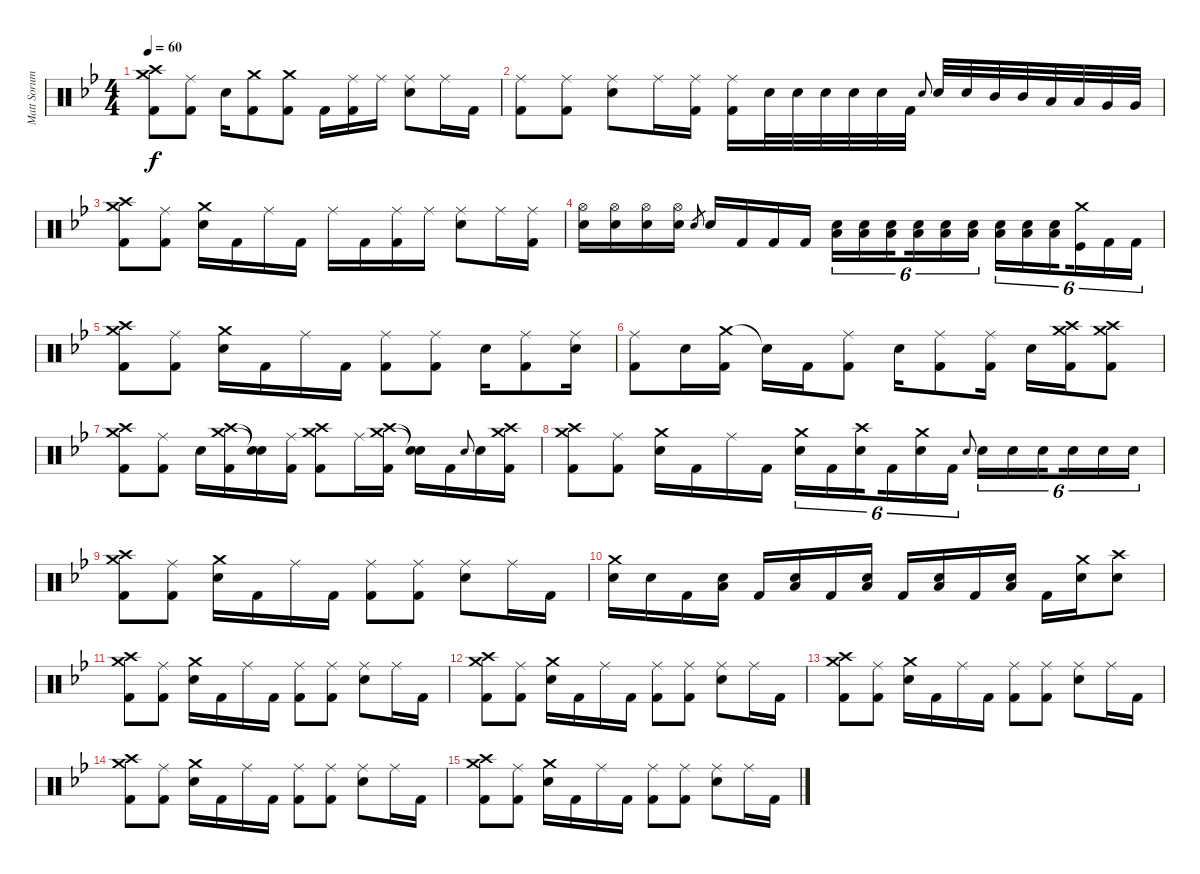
\track ("Matt Sorum - Drums" "Matt Sorum") {instrument percussion}
\staff {score}
\articulation defaults
\ts (4 4)
\tempo 60
\clef neutral
\ks bb
("Crash medium (hit)" "Crash high (hit)" "Kick (hit) 2").8{dy f} ("Ride (middle)" "Kick (hit) 2").8 "Snare (hit) 2".16 ("Crash medium (hit)" "Kick (hit) 2").8 ("Crash medium (hit)" "Kick (hit) 2").8 "Kick (hit) 2".16 ("Ride (middle)" "Kick (hit) 2").16 "Ride (middle)".16 ("Ride (middle)" "Snare (hit) 2").8 "Ride (middle)".16 "Kick (hit) 2".16 |
("Ride (middle)" "Kick (hit) 2").8 ("Ride (middle)" "Kick (hit) 2").8 ("Ride (middle)" "Snare (hit) 2").8 "Ride (middle)".16 ("Ride (middle)" "Kick (hit) 2").16 ("Ride (middle)" "Kick (hit) 2").16 "Snare (hit) 2".32 "Snare (hit) 2".32 "Snare (hit) 2".32 "Snare (hit) 2".32 "Snare (hit) 2".32 "Kick (hit) 2".32 "Snare (hit) 2".8{gr onbeat} "Snare (hit) 2".32 "Snare (hit) 2".32 "Mid Tom (hit)".32 "Mid Tom (hit)".32 "Low Tom (hit)".32 "Low Tom (hit)".32 "Very Low Tom (hit)".32 "Very Low Tom (hit)".32 |
("Crash medium (hit)" "Crash high (hit)" "Kick (hit) 2").8 ("Ride (middle)" "Kick (hit) 2").8 ("Crash medium (hit)" "Snare (hit) 2").16 "Kick (hit) 2".16 "Ride (middle)".16 "Kick (hit) 2".16 "Ride (middle)".16 "Kick (hit) 2".16 ("Ride (middle)" "Kick (hit) 2").16 "Ride (middle)".16 ("Ride (middle)" "Snare (hit) 2").8 "Ride (middle)".16 ("Ride (middle)" "Kick (hit) 2").16 |
("Hi-Hat (open)" "Snare (hit) 2").16 ("Hi-Hat (open)" "Snare (hit) 2").16 ("Hi-Hat (open)" "Snare (hit) 2").16 ("Hi-Hat (open)" "Snare (hit) 2").16 "Snare (hit) 2".8{gr} "Snare (hit) 2".16 "Kick (hit) 2".16 "Kick (hit) 2".16 "Kick (hit) 2".16 ("Low Tom (hit)" "Snare (hit) 2").16{tu (6 4)} ("Low Tom (hit)" "Snare (hit) 2").16{tu (6 4)} ("Low Tom (hit)" "Snare (hit) 2").16{tu (6 4) beam splitsecondary} ("Low Tom (hit)" "Snare (hit) 2").16{tu (6 4)} ("Low Tom (hit)" "Snare (hit) 2").16{tu (6 4)} ("Low Tom (hit)" "Snare (hit) 2").16{tu (6 4)} ("Low Tom (hit)" "Snare (hit) 2").16{tu (6 4)} ("Low Tom (hit)" "Snare (hit) 2").16{tu (6 4)} ("Low Tom (hit)" "Snare (hit) 2").16{tu (6 4) beam splitsecondary} ("Crash medium (hit)" "Kick (hit)").16{tu (6 4)} "Kick (hit) 2".16{tu (6 4)} "Kick (hit) 2".16{tu (6 4)} |
("Crash medium (hit)" "Crash high (hit)" "Kick (hit) 2").8 ("Ride (middle)" "Kick (hit) 2").8 ("Crash medium (hit)" "Snare (hit) 2").16 "Kick (hit) 2".16 "Ride (middle)".16 "Kick (hit) 2".16 ("Ride (middle)" "Kick (hit) 2").8 ("Ride (middle)" "Kick (hit) 2").8 "Snare (hit) 2".16 ("Ride (middle)" "Kick (hit) 2").8 ("Ride (middle)" "Snare (hit) 2").16 |
("Ride (middle)" "Kick (hit) 2").8 "Snare (hit) 2".16 ("Crash medium (hit)" "Kick (hit) 2").16 "Snare (hit)"{t}.16 "Kick (hit) 2".16 ("Ride (middle)" "Kick (hit) 2").8 "Snare (hit) 2".16 ("Ride (middle)" "Kick (hit) 2").8 ("Ride (middle)" "Kick (hit) 2").16 "Snare (hit) 2".16 ("Crash medium (hit)" "Crash high (hit)" "Kick (hit) 2").16 ("Crash high (hit)" "Crash medium (hit)" "Kick (hit) 2").8 |
("Crash medium (hit)" "Crash high (hit)" "Kick (hit) 2").8 ("Ride (middle)" "Kick (hit) 2").8 "Snare (hit) 2".16 ("Crash high (hit)" "Crash medium (hit)" "Kick (hit) 2").16 ("Snare (hit)"{t} "Snare (hit)"{t}).16 ("Ride (middle)" "Kick (hit) 2").16 ("Crash medium (hit)" "Crash high (hit)" "Kick (hit) 2").8 "Ride (middle)".16 ("Crash high (hit)" "Crash medium (hit)" "Kick (hit) 2").16 ("Snare (hit)"{t} "Snare (hit)"{t}).16 "Kick (hit) 2".16 "Snare (hit) 2".8{gr onbeat} "Snare (hit) 2".16 ("Crash medium (hit)" "Crash high (hit)" "Kick (hit) 2").16 |
("Crash medium (hit)" "Crash high (hit)" "Kick (hit) 2").8 ("Ride (middle)" "Kick (hit) 2").8 ("Crash medium (hit)" "Snare (hit) 2").16 "Kick (hit) 2".16 "Ride (middle)".16 "Kick (hit) 2".16 ("Crash medium (hit)" "Snare (hit) 2").16{tu (6 4)} "Kick (hit) 2".16{tu (6 4)} ("Crash high (hit)" "Snare (hit) 2").16{tu (6 4) beam splitsecondary} "Kick (hit) 2".16{tu (6 4)} ("Crash medium (hit)" "Snare (hit) 2").16{tu (6 4)} "Kick (hit) 2".16{tu (6 4)} "Snare (hit) 2".8{gr onbeat} "Snare (hit) 2".16{tu (6 4)} "Snare (hit) 2".16{tu (6 4)} "Snare (hit) 2".16{tu (6 4) beam splitsecondary} "Snare (hit) 2".16{tu (6 4)} "Snare (hit) 2".16{tu (6 4)} "Snare (hit) 2".16{tu (6 4)} |
("Crash medium (hit)" "Crash high (hit)" "Kick (hit) 2").8 ("Ride (middle)" "Kick (hit) 2").8 ("Crash medium (hit)" "Snare (hit) 2").16 "Kick (hit) 2".16 "Ride (middle)".16 "Kick (hit) 2".16 ("Ride (middle)" "Kick (hit) 2").8 ("Ride (middle)" "Kick (hit) 2").8 ("Ride (middle)" "Snare (hit) 2").8 "Ride (middle)".16 "Kick (hit) 2".16 |
("Crash medium (hit)" "Snare (hit) 2").16 "Snare (hit) 2".16 "Kick (hit) 2".16 ("Low Tom (hit)" "Snare (hit) 2").16 "Kick (hit) 2".16 ("Low Tom (hit)" "Snare (hit) 2").16 "Kick (hit) 2".16 ("Low Tom (hit)" "Snare (hit) 2").16 "Kick (hit) 2".16 ("Low Tom (hit)" "Snare (hit) 2").16 "Kick (hit) 2".16 ("Low Tom (hit)" "Snare (hit) 2").16 "Kick (hit) 2".16 ("Crash medium (hit)" "Snare (hit) 2").16 ("Crash high (hit)" "Snare (hit) 2").8 |
("Crash medium (hit)" "Crash high (hit)" "Kick (hit) 2").8 ("Ride (middle)" "Kick (hit) 2").8 ("Crash medium (hit)" "Snare (hit) 2").16 "Kick (hit) 2".16 "Ride (middle)".16 "Kick (hit) 2".16 ("Ride (middle)" "Kick (hit) 2").8 ("Ride (middle)" "Kick (hit) 2").8 ("Ride (middle)" "Snare (hit) 2").8 "Ride (middle)".16 "Kick (hit) 2".16 |
("Crash medium (hit)" "Crash high (hit)" "Kick (hit) 2").8 ("Ride (middle)" "Kick (hit) 2").8 ("Crash medium (hit)" "Snare (hit) 2").16 "Kick (hit) 2".16 "Ride (middle)".16 "Kick (hit) 2".16 ("Ride (middle)" "Kick (hit) 2").8 ("Ride (middle)" "Kick (hit) 2").8 ("Ride (middle)" "Snare (hit) 2").8 "Ride (middle)".16 "Kick (hit) 2".16 |
("Crash medium (hit)" "Crash high (hit)" "Kick (hit) 2").8 ("Ride (middle)" "Kick (hit) 2").8 ("Crash medium (hit)" "Snare (hit) 2").16 "Kick (hit) 2".16 "Ride (middle)".16 "Kick (hit) 2".16 ("Ride (middle)" "Kick (hit) 2").8 ("Ride (middle)" "Kick (hit) 2").8 ("Ride (middle)" "Snare (hit) 2").8 "Ride (middle)".16 "Kick (hit) 2".16 |
("Crash medium (hit)" "Crash high (hit)" "Kick (hit) 2").8 ("Ride (middle)" "Kick (hit) 2").8 ("Crash medium (hit)" "Snare (hit) 2").16 "Kick (hit) 2".16 "Ride (middle)".16 "Kick (hit) 2".16 ("Ride (middle)" "Kick (hit) 2").8 ("Ride (middle)" "Kick (hit) 2").8 ("Ride (middle)" "Snare (hit) 2").8 "Ride (middle)".16 "Kick (hit) 2".16 |
("Crash medium (hit)" "Crash high (hit)" "Kick (hit) 2").8 ("Ride (middle)" "Kick (hit) 2").8 ("Crash medium (hit)" "Snare (hit) 2").16 "Kick (hit) 2".16 "Ride (middle)".16 "Kick (hit) 2".16 ("Ride (middle)" "Kick (hit) 2").8 ("Ride (middle)" "Kick (hit) 2").8 ("Ride (middle)" "Snare (hit) 2").8 "Ride (middle)".16 "Kick (hit) 2".16
